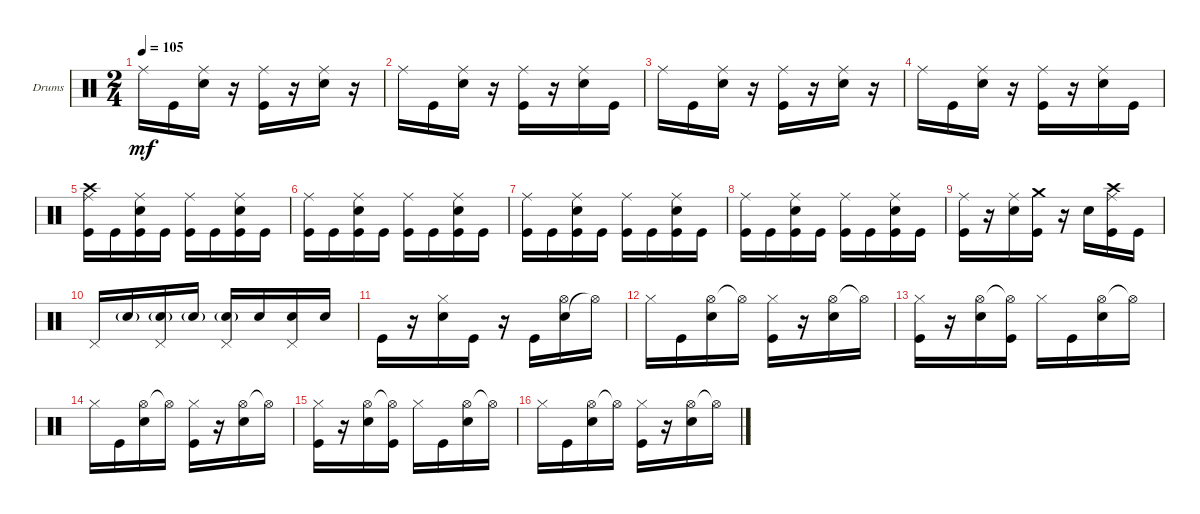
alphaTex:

\defaultSystemsLayout 4
\bracketExtendMode groupsimilarinstruments
\firstSystemTrackNameOrientation horizontal
\otherSystemsTrackNameOrientation horizontal
\track ("Godd" "Drums") {instrument percussion}
\staff {score}
\articulation defaults
\ts (2 4)
\tempo 105
\clef neutral
\ks c "Ride (middle)".16{dy mf} "Kick (hit)".16
("Ride (middle)" "Snare (hit) 2").16 r.16 ("Ride (middle)" "Kick (hit)").16 r.16 ("Ride (middle)" "Snare (hit) 2").16 r.16 |
"Ride (middle)".16 "Kick (hit)".16 ("Ride (middle)" "Snare (hit) 2").16 r.16 ("Ride (middle)" "Kick (hit)").16 r.16 ("Ride (middle)" "Snare (hit) 2").16 "Kick (hit)".16 |
"Ride (middle)".16 "Kick (hit)".16 ("Ride (middle)" "Snare (hit) 2").16 r.16 ("Ride (middle)" "Kick (hit)").16 r.16 ("Ride (middle)" "Snare (hit) 2").16 r.16 |
"Ride (middle)".16 "Kick (hit)".16 ("Ride (middle)" "Snare (hit) 2").16 r.16 ("Ride (middle)" "Kick (hit)").16 r.16 ("Ride (middle)" "Snare (hit) 2").16 "Kick (hit)".16 |
("Ride (middle)" "Crash high (hit)" "Kick (hit)").16 "Kick (hit)".16 ("Ride (middle)" "Snare (hit) 2" "Kick (hit)").16 "Kick (hit)".16 ("Ride (middle)" "Kick (hit)").16 "Kick (hit)".16 ("Ride (middle)" "Snare (hit) 2" "Kick (hit)").16 "Kick (hit)".16 |
("Ride (middle)" "Kick (hit)").16 "Kick (hit)".16 ("Ride (middle)" "Snare (hit) 2" "Kick (hit)").16 "Kick (hit)".16 ("Ride (middle)" "Kick (hit)").16 "Kick (hit)".16 ("Ride (middle)" "Snare (hit) 2" "Kick (hit)").16 "Kick (hit)".16 |
("Ride (middle)" "Kick (hit)").16 "Kick (hit)".16 ("Ride (middle)" "Snare (hit) 2" "Kick (hit)").16 "Kick (hit)".16 ("Ride (middle)" "Kick (hit)").16 "Kick (hit)".16 ("Ride (middle)" "Snare (hit) 2" "Kick (hit)").16 "Kick (hit)".16 |
("Ride (middle)" "Kick (hit)").16 "Kick (hit)".16 ("Ride (middle)" "Snare (hit) 2" "Kick (hit)").16 "Kick (hit)".16 ("Ride (middle)" "Kick (hit)").16 "Kick (hit)".16 ("Ride (middle)" "Snare (hit) 2" "Kick (hit)").16 "Kick (hit)".16 |
("Ride (middle)" "Kick (hit)").16 r.16 ("Ride (middle)" "Snare (hit) 2").16 ("Kick (hit)" "Crash medium (hit)").16 r.16 "Snare (hit) 2".16 ("Ride (middle)" "Crash high (hit)" "Kick (hit)").16 "Kick (hit)".16 |
"Pedal Hi-Hat (hit)".16 "Snare (hit) 2"{g}.16 ("Pedal Hi-Hat (hit)" "Snare (hit) 2"{g}).16 "Snare (hit) 2"{g}.16 ("Pedal Hi-Hat (hit)" "Snare (hit) 2"{g}).16 "Snare (hit) 2".16 ("Pedal Hi-Hat (hit)" "Snare (hit) 2").16 "Snare (hit) 2".16 |
"Kick (hit)".16 r.16 ("Snare (hit) 2" "Hi-Hat (closed)").16 "Kick (hit)".16 r.16 "Kick (hit)".16 ("Snare (hit) 2" "Hi-Hat (open)").16 "Hi-Hat (open)"{t}.16 |
"Hi-Hat (closed)".16 "Kick (hit)".16 ("Hi-Hat (open)" "Snare (hit) 2").16 "Hi-Hat (open)"{t}.16 ("Kick (hit)" "Hi-Hat (closed)").16 r.16 ("Hi-Hat (open)" "Snare (hit) 2").16 "Hi-Hat (open)"{t}.16 |
("Hi-Hat (closed)" "Kick (hit)").16 r.16 ("Hi-Hat (open)" "Snare (hit) 2").16 ("Hi-Hat (open)"{t} "Kick (hit)").16 "Hi-Hat (closed)".16 "Kick (hit)".16 ("Hi-Hat (open)" "Snare (hit) 2").16 "Hi-Hat (open)"{t}.16 |
"Hi-Hat (closed)".16 "Kick (hit)".16 ("Hi-Hat (open)" "Snare (hit) 2").16 "Hi-Hat (open)"{t}.16 ("Kick (hit)" "Hi-Hat (closed)").16 r.16 ("Hi-Hat (open)" "Snare (hit) 2").16 "Hi-Hat (open)"{t}.16 |
("Hi-Hat (closed)" "Kick (hit)").16 r.16 ("Hi-Hat (open)" "Snare (hit) 2").16 ("Hi-Hat (open)"{t} "Kick (hit)").16 "Hi-Hat (closed)".16 "Kick (hit)".16 ("Hi-Hat (open)" "Snare (hit) 2").16 "Hi-Hat (open)"{t}.16 |
"Hi-Hat (closed)".16 "Kick (hit)".16 ("Hi-Hat (open)" "Snare (hit) 2").16 "Hi-Hat (open)"{t}.16 ("Kick (hit)" "Hi-Hat (closed)").16 r.16 ("Hi-Hat (open)" "Snare (hit) 2").16 "Hi-Hat (open)"{t}.16
